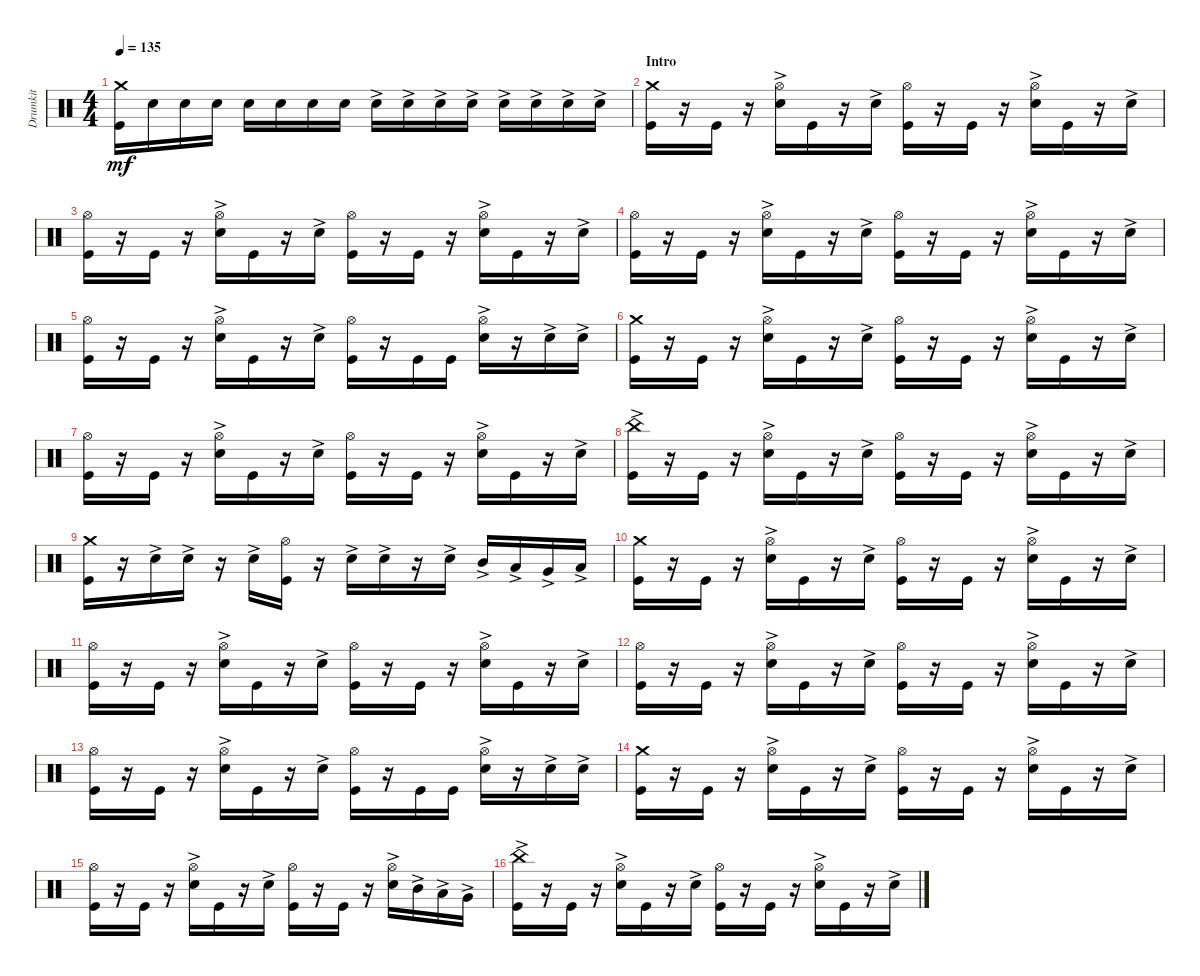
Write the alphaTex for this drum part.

\track ("Drumkit" "Drumkit") {instrument percussion}
\staff {score}
\articulation defaults
\ts (4 4)
\tempo 135
\clef neutral
\ks c
("Kick (hit)" "Crash medium (hit)").16{dy mf} "Snare (hit) 2".16 "Snare (hit) 2".16 "Snare (hit) 2".16 "Snare (hit) 2".16 "Snare (hit) 2".16 "Snare (hit) 2".16 "Snare (hit) 2".16 "Snare (hit) 2"{ac}.16 "Snare (hit) 2"{ac}.16 "Snare (hit) 2"{ac}.16 "Snare (hit) 2"{ac}.16 "Snare (hit) 2"{ac}.16 "Snare (hit) 2"{ac}.16 "Snare (hit) 2"{ac}.16 "Snare (hit) 2"{ac}.16 |
\section ("" "Intro")
("Kick (hit)" "Crash medium (hit)").16 r.16 "Kick (hit)".16 r.16 ("Snare (hit) 2"{ac} "Hi-Hat (open)").16 "Kick (hit)".16 r.16 "Snare (hit) 2"{ac}.16 ("Kick (hit)" "Hi-Hat (open)").16 r.16 "Kick (hit)".16 r.16 ("Snare (hit) 2"{ac} "Hi-Hat (open)").16 "Kick (hit)".16 r.16 "Snare (hit) 2"{ac}.16 |
("Kick (hit)" "Hi-Hat (open)").16 r.16 "Kick (hit)".16 r.16 ("Snare (hit) 2"{ac} "Hi-Hat (open)").16 "Kick (hit)".16 r.16 "Snare (hit) 2"{ac}.16 ("Kick (hit)" "Hi-Hat (open)").16 r.16 "Kick (hit)".16 r.16 ("Snare (hit) 2"{ac} "Hi-Hat (open)").16 "Kick (hit)".16 r.16 "Snare (hit) 2"{ac}.16 |
("Kick (hit)" "Hi-Hat (open)").16 r.16 "Kick (hit)".16 r.16 ("Snare (hit) 2"{ac} "Hi-Hat (open)").16 "Kick (hit)".16 r.16 "Snare (hit) 2"{ac}.16 ("Kick (hit)" "Hi-Hat (open)").16 r.16 "Kick (hit)".16 r.16 ("Snare (hit) 2"{ac} "Hi-Hat (open)").16 "Kick (hit)".16 r.16 "Snare (hit) 2"{ac}.16 |
("Kick (hit)" "Hi-Hat (open)").16 r.16 "Kick (hit)".16 r.16 ("Snare (hit) 2"{ac} "Hi-Hat (open)").16 "Kick (hit)".16 r.16 "Snare (hit) 2"{ac}.16 ("Kick (hit)" "Hi-Hat (open)").16 r.16 "Kick (hit)".16 "Kick (hit)".16 ("Snare (hit) 2"{ac} "Hi-Hat (open)").16 r.16 "Snare (hit) 2"{ac}.16 "Snare (hit) 2"{ac}.16 |
("Kick (hit)" "Crash medium (hit)").16 r.16 "Kick (hit)".16 r.16 ("Snare (hit) 2"{ac} "Hi-Hat (open)").16 "Kick (hit)".16 r.16 "Snare (hit) 2"{ac}.16 ("Kick (hit)" "Hi-Hat (open)").16 r.16 "Kick (hit)".16 r.16 ("Snare (hit) 2"{ac} "Hi-Hat (open)").16 "Kick (hit)".16 r.16 "Snare (hit) 2"{ac}.16 |
("Kick (hit)" "Hi-Hat (open)").16 r.16 "Kick (hit)".16 r.16 ("Snare (hit) 2"{ac} "Hi-Hat (open)").16 "Kick (hit)".16 r.16 "Snare (hit) 2"{ac}.16 ("Kick (hit)" "Hi-Hat (open)").16 r.16 "Kick (hit)".16 r.16 ("Snare (hit) 2"{ac} "Hi-Hat (open)").16 "Kick (hit)".16 r.16 "Snare (hit) 2"{ac}.16 |
("Kick (hit)" "China (hit)"{ac}).16 r.16 "Kick (hit)".16 r.16 ("Snare (hit) 2"{ac} "Hi-Hat (open)").16 "Kick (hit)".16 r.16 "Snare (hit) 2"{ac}.16 ("Kick (hit)" "Hi-Hat (open)").16 r.16 "Kick (hit)".16 r.16 ("Snare (hit) 2"{ac} "Hi-Hat (open)").16 "Kick (hit)".16 r.16 "Snare (hit) 2"{ac}.16 |
("Kick (hit)" "Crash medium (hit)").16 r.16 "Snare (hit) 2"{ac}.16 "Snare (hit) 2"{ac}.16 r.16 "Snare (hit) 2"{ac}.16 ("Kick (hit)" "Hi-Hat (open)").16 r.16 "Snare (hit) 2"{ac}.16 "Snare (hit) 2"{ac}.16 r.16 "Snare (hit) 2"{ac}.16 "Mid Tom (hit)"{ac}.16 "Low Tom (hit)"{ac}.16 "Very Low Tom (hit)"{ac}.16 "Low Floor Tom (hit)"{ac}.16 |
("Kick (hit)" "Crash medium (hit)").16 r.16 "Kick (hit)".16 r.16 ("Snare (hit) 2"{ac} "Hi-Hat (open)").16 "Kick (hit)".16 r.16 "Snare (hit) 2"{ac}.16 ("Kick (hit)" "Hi-Hat (open)").16 r.16 "Kick (hit)".16 r.16 ("Snare (hit) 2"{ac} "Hi-Hat (open)").16 "Kick (hit)".16 r.16 "Snare (hit) 2"{ac}.16 |
("Kick (hit)" "Hi-Hat (open)").16 r.16 "Kick (hit)".16 r.16 ("Snare (hit) 2"{ac} "Hi-Hat (open)").16 "Kick (hit)".16 r.16 "Snare (hit) 2"{ac}.16 ("Kick (hit)" "Hi-Hat (open)").16 r.16 "Kick (hit)".16 r.16 ("Snare (hit) 2"{ac} "Hi-Hat (open)").16 "Kick (hit)".16 r.16 "Snare (hit) 2"{ac}.16 |
("Kick (hit)" "Hi-Hat (open)").16 r.16 "Kick (hit)".16 r.16 ("Snare (hit) 2"{ac} "Hi-Hat (open)").16 "Kick (hit)".16 r.16 "Snare (hit) 2"{ac}.16 ("Kick (hit)" "Hi-Hat (open)").16 r.16 "Kick (hit)".16 r.16 ("Snare (hit) 2"{ac} "Hi-Hat (open)").16 "Kick (hit)".16 r.16 "Snare (hit) 2"{ac}.16 |
("Kick (hit)" "Hi-Hat (open)").16 r.16 "Kick (hit)".16 r.16 ("Snare (hit) 2"{ac} "Hi-Hat (open)").16 "Kick (hit)".16 r.16 "Snare (hit) 2"{ac}.16 ("Kick (hit)" "Hi-Hat (open)").16 r.16 "Kick (hit)".16 "Kick (hit)".16 ("Snare (hit) 2"{ac} "Hi-Hat (open)").16 r.16 "Snare (hit) 2"{ac}.16 "Snare (hit) 2"{ac}.16 |
("Kick (hit)" "Crash medium (hit)").16 r.16 "Kick (hit)".16 r.16 ("Snare (hit) 2"{ac} "Hi-Hat (open)").16 "Kick (hit)".16 r.16 "Snare (hit) 2"{ac}.16 ("Kick (hit)" "Hi-Hat (open)").16 r.16 "Kick (hit)".16 r.16 ("Snare (hit) 2"{ac} "Hi-Hat (open)").16 "Kick (hit)".16 r.16 "Snare (hit) 2"{ac}.16 |
("Kick (hit)" "Hi-Hat (open)").16 r.16 "Kick (hit)".16 r.16 ("Snare (hit) 2"{ac} "Hi-Hat (open)").16 "Kick (hit)".16 r.16 "Snare (hit) 2"{ac}.16 ("Kick (hit)" "Hi-Hat (open)").16 r.16 "Kick (hit)".16 r.16 ("Snare (hit) 2"{ac} "Hi-Hat (open)").16 "Mid Tom (hit)"{ac}.16 "Low Tom (hit)"{ac}.16 "Very Low Tom (hit)"{ac}.16 |
("Kick (hit)" "China (hit)"{ac}).16 r.16 "Kick (hit)".16 r.16 ("Snare (hit) 2"{ac} "Hi-Hat (open)").16 "Kick (hit)".16 r.16 "Snare (hit) 2"{ac}.16 ("Kick (hit)" "Hi-Hat (open)").16 r.16 "Kick (hit)".16 r.16 ("Snare (hit) 2"{ac} "Hi-Hat (open)").16 "Kick (hit)".16 r.16 "Snare (hit) 2"{ac}.16
